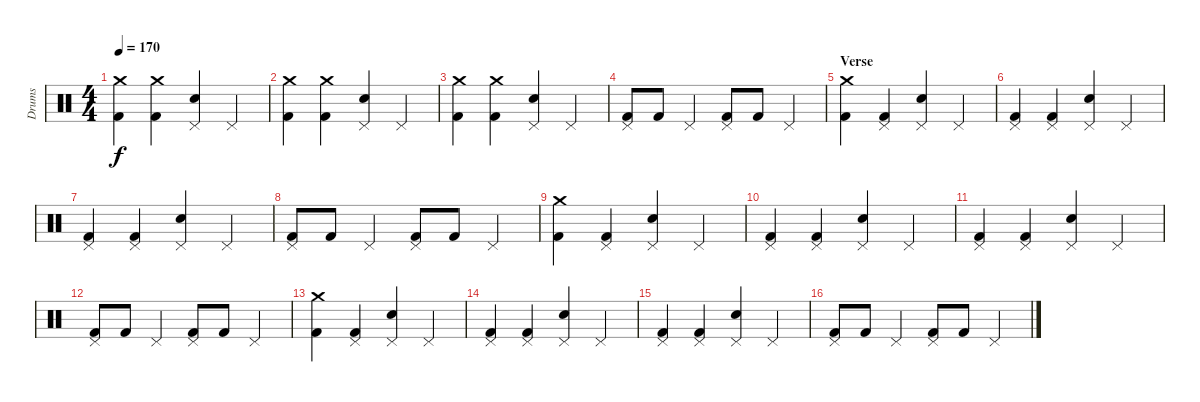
\track ("Drums" "Drums") {instrument percussion}
\staff {score}
\articulation defaults
\ts (4 4)
\tempo 170
\clef neutral
\ks c
("Crash medium (hit)" "Kick (hit) 2").4{dy f} ("Crash medium (hit)" "Kick (hit) 2").4 ("Pedal Hi-Hat (hit)" "Electric Snare (hit)").4 "Pedal Hi-Hat (hit)".4 |
("Crash medium (hit)" "Kick (hit) 2").4 ("Crash medium (hit)" "Kick (hit) 2").4 ("Pedal Hi-Hat (hit)" "Electric Snare (hit)").4 "Pedal Hi-Hat (hit)".4 |
("Crash medium (hit)" "Kick (hit) 2").4 ("Crash medium (hit)" "Kick (hit) 2").4 ("Pedal Hi-Hat (hit)" "Electric Snare (hit)").4 "Pedal Hi-Hat (hit)".4 |
("Pedal Hi-Hat (hit)" "Kick (hit) 2").8 "Kick (hit) 2".8 "Pedal Hi-Hat (hit)".4 ("Pedal Hi-Hat (hit)" "Kick (hit) 2").8 "Kick (hit) 2".8 "Pedal Hi-Hat (hit)".4 |
\section ("" "Verse")
("Crash medium (hit)" "Kick (hit) 2").4 ("Pedal Hi-Hat (hit)" "Kick (hit) 2").4 ("Pedal Hi-Hat (hit)" "Electric Snare (hit)").4 "Pedal Hi-Hat (hit)".4 |
("Pedal Hi-Hat (hit)" "Kick (hit) 2").4 ("Pedal Hi-Hat (hit)" "Kick (hit) 2").4 ("Pedal Hi-Hat (hit)" "Electric Snare (hit)").4 "Pedal Hi-Hat (hit)".4 |
("Pedal Hi-Hat (hit)" "Kick (hit) 2").4 ("Pedal Hi-Hat (hit)" "Kick (hit) 2").4 ("Pedal Hi-Hat (hit)" "Electric Snare (hit)").4 "Pedal Hi-Hat (hit)".4 |
("Pedal Hi-Hat (hit)" "Kick (hit) 2").8 "Kick (hit) 2".8 "Pedal Hi-Hat (hit)".4 ("Pedal Hi-Hat (hit)" "Kick (hit) 2").8 "Kick (hit) 2".8 "Pedal Hi-Hat (hit)".4 |
("Crash medium (hit)" "Kick (hit) 2").4 ("Pedal Hi-Hat (hit)" "Kick (hit) 2").4 ("Pedal Hi-Hat (hit)" "Electric Snare (hit)").4 "Pedal Hi-Hat (hit)".4 |
("Pedal Hi-Hat (hit)" "Kick (hit) 2").4 ("Pedal Hi-Hat (hit)" "Kick (hit) 2").4 ("Pedal Hi-Hat (hit)" "Electric Snare (hit)").4 "Pedal Hi-Hat (hit)".4 |
("Pedal Hi-Hat (hit)" "Kick (hit) 2").4 ("Pedal Hi-Hat (hit)" "Kick (hit) 2").4 ("Pedal Hi-Hat (hit)" "Electric Snare (hit)").4 "Pedal Hi-Hat (hit)".4 |
("Pedal Hi-Hat (hit)" "Kick (hit) 2").8 "Kick (hit) 2".8 "Pedal Hi-Hat (hit)".4 ("Pedal Hi-Hat (hit)" "Kick (hit) 2").8 "Kick (hit) 2".8 "Pedal Hi-Hat (hit)".4 |
("Crash medium (hit)" "Kick (hit) 2").4 ("Pedal Hi-Hat (hit)" "Kick (hit) 2").4 ("Pedal Hi-Hat (hit)" "Electric Snare (hit)").4 "Pedal Hi-Hat (hit)".4 |
("Pedal Hi-Hat (hit)" "Kick (hit) 2").4 ("Pedal Hi-Hat (hit)" "Kick (hit) 2").4 ("Pedal Hi-Hat (hit)" "Electric Snare (hit)").4 "Pedal Hi-Hat (hit)".4 |
("Pedal Hi-Hat (hit)" "Kick (hit) 2").4 ("Pedal Hi-Hat (hit)" "Kick (hit) 2").4 ("Pedal Hi-Hat (hit)" "Electric Snare (hit)").4 "Pedal Hi-Hat (hit)".4 |
("Pedal Hi-Hat (hit)" "Kick (hit) 2").8 "Kick (hit) 2".8 "Pedal Hi-Hat (hit)".4 ("Pedal Hi-Hat (hit)" "Kick (hit) 2").8 "Kick (hit) 2".8 "Pedal Hi-Hat (hit)".4
